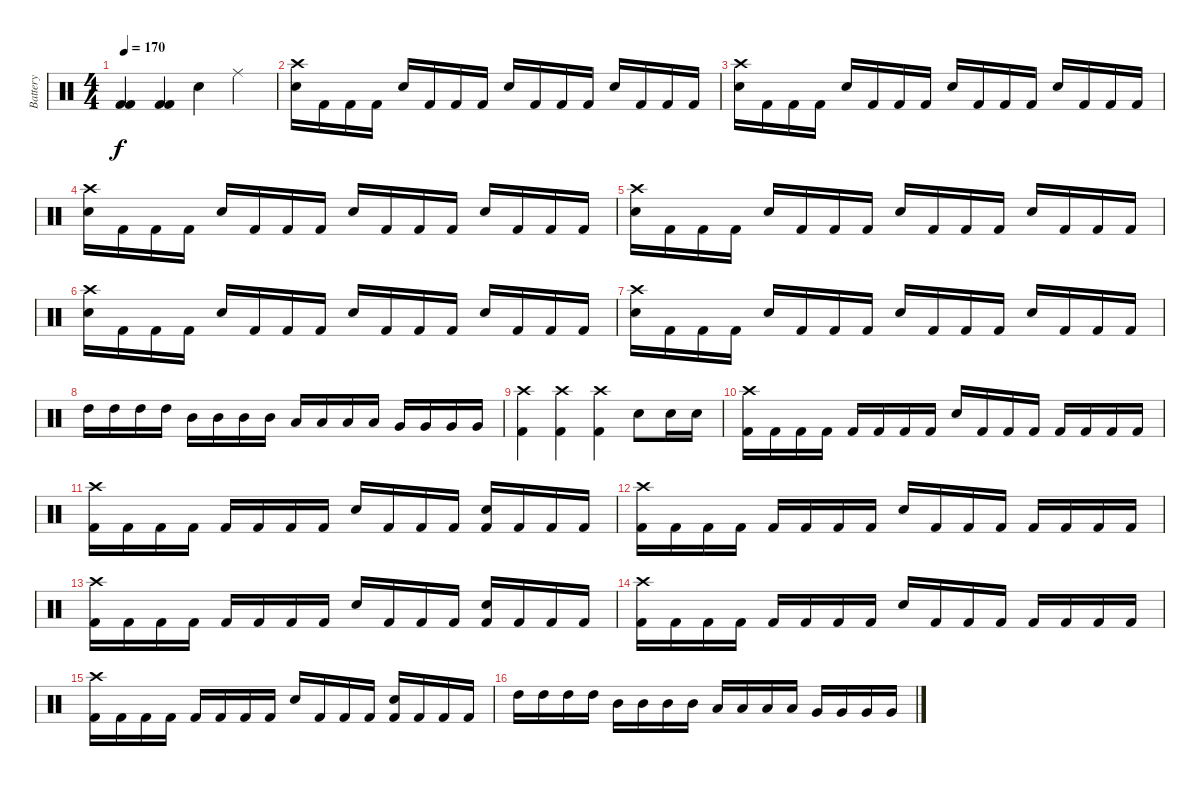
\track ("Battery" "Battery") {instrument percussion}
\staff {score}
\articulation defaults
\ts (4 4)
\tempo 170
\clef neutral
\ks c
("Kick (hit) 2" "Kick (hit) 2").4{dy f} ("Kick (hit) 2" "Kick (hit) 2").4 "Snare (hit) 2".4 "Ride (middle)".4 |
("Snare (hit) 2" "Crash high (hit)").16 "Kick (hit) 2".16 "Kick (hit) 2".16 "Kick (hit) 2".16 "Snare (hit) 2".16 "Kick (hit) 2".16 "Kick (hit) 2".16 "Kick (hit) 2".16 "Snare (hit) 2".16 "Kick (hit) 2".16 "Kick (hit) 2".16 "Kick (hit) 2".16 "Snare (hit) 2".16 "Kick (hit) 2".16 "Kick (hit) 2".16 "Kick (hit) 2".16 |
("Snare (hit) 2" "Crash high (hit)").16 "Kick (hit) 2".16 "Kick (hit) 2".16 "Kick (hit) 2".16 "Snare (hit) 2".16 "Kick (hit) 2".16 "Kick (hit) 2".16 "Kick (hit) 2".16 "Snare (hit) 2".16 "Kick (hit) 2".16 "Kick (hit) 2".16 "Kick (hit) 2".16 "Snare (hit) 2".16 "Kick (hit) 2".16 "Kick (hit) 2".16 "Kick (hit) 2".16 |
("Snare (hit) 2" "Crash high (hit)").16 "Kick (hit) 2".16 "Kick (hit) 2".16 "Kick (hit) 2".16 "Snare (hit) 2".16 "Kick (hit) 2".16 "Kick (hit) 2".16 "Kick (hit) 2".16 "Snare (hit) 2".16 "Kick (hit) 2".16 "Kick (hit) 2".16 "Kick (hit) 2".16 "Snare (hit) 2".16 "Kick (hit) 2".16 "Kick (hit) 2".16 "Kick (hit) 2".16 |
("Snare (hit) 2" "Crash high (hit)").16 "Kick (hit) 2".16 "Kick (hit) 2".16 "Kick (hit) 2".16 "Snare (hit) 2".16 "Kick (hit) 2".16 "Kick (hit) 2".16 "Kick (hit) 2".16 "Snare (hit) 2".16 "Kick (hit) 2".16 "Kick (hit) 2".16 "Kick (hit) 2".16 "Snare (hit) 2".16 "Kick (hit) 2".16 "Kick (hit) 2".16 "Kick (hit) 2".16 |
("Snare (hit) 2" "Crash high (hit)").16 "Kick (hit) 2".16 "Kick (hit) 2".16 "Kick (hit) 2".16 "Snare (hit) 2".16 "Kick (hit) 2".16 "Kick (hit) 2".16 "Kick (hit) 2".16 "Snare (hit) 2".16 "Kick (hit) 2".16 "Kick (hit) 2".16 "Kick (hit) 2".16 "Snare (hit) 2".16 "Kick (hit) 2".16 "Kick (hit) 2".16 "Kick (hit) 2".16 |
("Snare (hit) 2" "Crash high (hit)").16 "Kick (hit) 2".16 "Kick (hit) 2".16 "Kick (hit) 2".16 "Snare (hit) 2".16 "Kick (hit) 2".16 "Kick (hit) 2".16 "Kick (hit) 2".16 "Snare (hit) 2".16 "Kick (hit) 2".16 "Kick (hit) 2".16 "Kick (hit) 2".16 "Snare (hit) 2".16 "Kick (hit) 2".16 "Kick (hit) 2".16 "Kick (hit) 2".16 |
"High Tom (hit)".16 "High Tom (hit)".16 "High Tom (hit)".16 "High Tom (hit)".16 "Mid Tom (hit)".16 "Mid Tom (hit)".16 "Mid Tom (hit)".16 "Mid Tom (hit)".16 "Low Tom (hit)".16 "Low Tom (hit)".16 "Low Tom (hit)".16 "Low Tom (hit)".16 "Very Low Tom (hit)".16 "Very Low Tom (hit)".16 "Very Low Tom (hit)".16 "Very Low Tom (hit)".16 |
("Kick (hit) 2" "Crash high (hit)").4 ("Kick (hit) 2" "Crash high (hit)").4 ("Kick (hit) 2" "Crash high (hit)").4 "Snare (hit) 2".8 "Snare (hit) 2".16 "Snare (hit) 2".16 |
("Crash high (hit)" "Kick (hit) 2").16 "Kick (hit) 2".16 "Kick (hit) 2".16 "Kick (hit) 2".16 "Kick (hit) 2".16 "Kick (hit) 2".16 "Kick (hit) 2".16 "Kick (hit) 2".16 "Snare (hit) 2".16 "Kick (hit) 2".16 "Kick (hit) 2".16 "Kick (hit) 2".16 "Kick (hit) 2".16 "Kick (hit) 2".16 "Kick (hit) 2".16 "Kick (hit) 2".16 |
("Crash high (hit)" "Kick (hit) 2").16 "Kick (hit) 2".16 "Kick (hit) 2".16 "Kick (hit) 2".16 "Kick (hit) 2".16 "Kick (hit) 2".16 "Kick (hit) 2".16 "Kick (hit) 2".16 "Snare (hit) 2".16 "Kick (hit) 2".16 "Kick (hit) 2".16 "Kick (hit) 2".16 ("Snare (hit) 2" "Kick (hit) 2").16 "Kick (hit) 2".16 "Kick (hit) 2".16 "Kick (hit) 2".16 |
("Crash high (hit)" "Kick (hit) 2").16 "Kick (hit) 2".16 "Kick (hit) 2".16 "Kick (hit) 2".16 "Kick (hit) 2".16 "Kick (hit) 2".16 "Kick (hit) 2".16 "Kick (hit) 2".16 "Snare (hit) 2".16 "Kick (hit) 2".16 "Kick (hit) 2".16 "Kick (hit) 2".16 "Kick (hit) 2".16 "Kick (hit) 2".16 "Kick (hit) 2".16 "Kick (hit) 2".16 |
("Crash high (hit)" "Kick (hit) 2").16 "Kick (hit) 2".16 "Kick (hit) 2".16 "Kick (hit) 2".16 "Kick (hit) 2".16 "Kick (hit) 2".16 "Kick (hit) 2".16 "Kick (hit) 2".16 "Snare (hit) 2".16 "Kick (hit) 2".16 "Kick (hit) 2".16 "Kick (hit) 2".16 ("Snare (hit) 2" "Kick (hit) 2").16 "Kick (hit) 2".16 "Kick (hit) 2".16 "Kick (hit) 2".16 |
("Crash high (hit)" "Kick (hit) 2").16 "Kick (hit) 2".16 "Kick (hit) 2".16 "Kick (hit) 2".16 "Kick (hit) 2".16 "Kick (hit) 2".16 "Kick (hit) 2".16 "Kick (hit) 2".16 "Snare (hit) 2".16 "Kick (hit) 2".16 "Kick (hit) 2".16 "Kick (hit) 2".16 "Kick (hit) 2".16 "Kick (hit) 2".16 "Kick (hit) 2".16 "Kick (hit) 2".16 |
("Crash high (hit)" "Kick (hit) 2").16 "Kick (hit) 2".16 "Kick (hit) 2".16 "Kick (hit) 2".16 "Kick (hit) 2".16 "Kick (hit) 2".16 "Kick (hit) 2".16 "Kick (hit) 2".16 "Snare (hit) 2".16 "Kick (hit) 2".16 "Kick (hit) 2".16 "Kick (hit) 2".16 ("Snare (hit) 2" "Kick (hit) 2").16 "Kick (hit) 2".16 "Kick (hit) 2".16 "Kick (hit) 2".16 |
"High Tom (hit)".16 "High Tom (hit)".16 "High Tom (hit)".16 "High Tom (hit)".16 "Mid Tom (hit)".16 "Mid Tom (hit)".16 "Mid Tom (hit)".16 "Mid Tom (hit)".16 "Low Tom (hit)".16 "Low Tom (hit)".16 "Low Tom (hit)".16 "Low Tom (hit)".16 "Very Low Tom (hit)".16 "Very Low Tom (hit)".16 "Very Low Tom (hit)".16 "Very Low Tom (hit)".16
